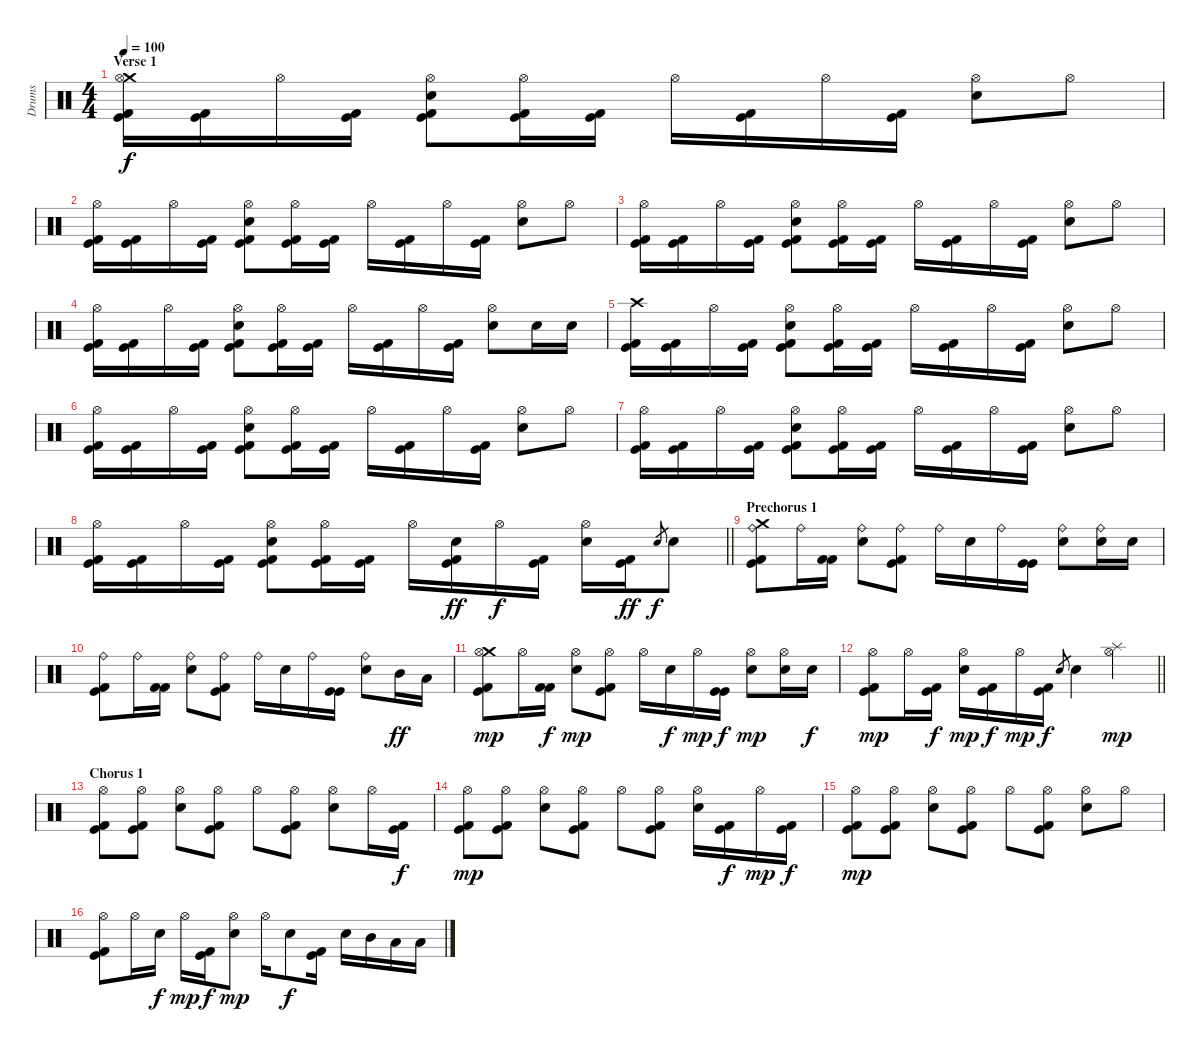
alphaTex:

\track ("Drums" "Drums") {instrument percussion}
\staff {score}
\articulation defaults
\ts (4 4)
\section ("" "Verse 1")
\tempo 100
\clef neutral
\ks c
("Crash medium (hit)" "Hi-Hat (open)" "Kick (hit)" "Kick (hit) 2").16{dy f} ("Kick (hit)" "Kick (hit) 2").16 "Hi-Hat (open)".16 ("Kick (hit)" "Kick (hit) 2").16 ("Hi-Hat (open)" "Snare (hit) 2" "Kick (hit)" "Kick (hit) 2").8 ("Hi-Hat (open)" "Kick (hit)" "Kick (hit) 2").16 ("Kick (hit)" "Kick (hit) 2").16 "Hi-Hat (open)".16 ("Kick (hit)" "Kick (hit) 2").16 "Hi-Hat (open)".16 ("Kick (hit)" "Kick (hit) 2").16 ("Hi-Hat (open)" "Snare (hit) 2").8 "Hi-Hat (open)".8 |
("Hi-Hat (open)" "Kick (hit)" "Kick (hit) 2").16 ("Kick (hit)" "Kick (hit) 2").16 "Hi-Hat (open)".16 ("Kick (hit)" "Kick (hit) 2").16 ("Hi-Hat (open)" "Snare (hit) 2" "Kick (hit)" "Kick (hit) 2").8 ("Hi-Hat (open)" "Kick (hit)" "Kick (hit) 2").16 ("Kick (hit)" "Kick (hit) 2").16 "Hi-Hat (open)".16 ("Kick (hit)" "Kick (hit) 2").16 "Hi-Hat (open)".16 ("Kick (hit)" "Kick (hit) 2").16 ("Hi-Hat (open)" "Snare (hit) 2").8 "Hi-Hat (open)".8 |
("Hi-Hat (open)" "Kick (hit)" "Kick (hit) 2").16 ("Kick (hit)" "Kick (hit) 2").16 "Hi-Hat (open)".16 ("Kick (hit)" "Kick (hit) 2").16 ("Hi-Hat (open)" "Snare (hit) 2" "Kick (hit)" "Kick (hit) 2").8 ("Hi-Hat (open)" "Kick (hit)" "Kick (hit) 2").16 ("Kick (hit)" "Kick (hit) 2").16 "Hi-Hat (open)".16 ("Kick (hit)" "Kick (hit) 2").16 "Hi-Hat (open)".16 ("Kick (hit)" "Kick (hit) 2").16 ("Hi-Hat (open)" "Snare (hit) 2").8 "Hi-Hat (open)".8 |
("Hi-Hat (open)" "Kick (hit)" "Kick (hit) 2").16 ("Kick (hit)" "Kick (hit) 2").16 "Hi-Hat (open)".16 ("Kick (hit)" "Kick (hit) 2").16 ("Hi-Hat (open)" "Snare (hit) 2" "Kick (hit)" "Kick (hit) 2").8 ("Hi-Hat (open)" "Kick (hit)" "Kick (hit) 2").16 ("Kick (hit)" "Kick (hit) 2").16 "Hi-Hat (open)".16 ("Kick (hit)" "Kick (hit) 2").16 "Hi-Hat (open)".16 ("Kick (hit)" "Kick (hit) 2").16 ("Hi-Hat (open)" "Snare (hit) 2").8 "Snare (hit) 2".16 "Snare (hit) 2".16 |
("Crash high (hit)" "Kick (hit)" "Kick (hit) 2").16 ("Kick (hit)" "Kick (hit) 2").16 "Hi-Hat (open)".16 ("Kick (hit)" "Kick (hit) 2").16 ("Hi-Hat (open)" "Snare (hit) 2" "Kick (hit)" "Kick (hit) 2").8 ("Hi-Hat (open)" "Kick (hit)" "Kick (hit) 2").16 ("Kick (hit)" "Kick (hit) 2").16 "Hi-Hat (open)".16 ("Kick (hit)" "Kick (hit) 2").16 "Hi-Hat (open)".16 ("Kick (hit)" "Kick (hit) 2").16 ("Hi-Hat (open)" "Snare (hit) 2").8 "Hi-Hat (open)".8 |
("Hi-Hat (open)" "Kick (hit)" "Kick (hit) 2").16 ("Kick (hit)" "Kick (hit) 2").16 "Hi-Hat (open)".16 ("Kick (hit)" "Kick (hit) 2").16 ("Hi-Hat (open)" "Snare (hit) 2" "Kick (hit)" "Kick (hit) 2").8 ("Hi-Hat (open)" "Kick (hit)" "Kick (hit) 2").16 ("Kick (hit)" "Kick (hit) 2").16 "Hi-Hat (open)".16 ("Kick (hit)" "Kick (hit) 2").16 "Hi-Hat (open)".16 ("Kick (hit)" "Kick (hit) 2").16 ("Hi-Hat (open)" "Snare (hit) 2").8 "Hi-Hat (open)".8 |
("Hi-Hat (open)" "Kick (hit)" "Kick (hit) 2").16 ("Kick (hit)" "Kick (hit) 2").16 "Hi-Hat (open)".16 ("Kick (hit)" "Kick (hit) 2").16 ("Hi-Hat (open)" "Snare (hit) 2" "Kick (hit)" "Kick (hit) 2").8 ("Hi-Hat (open)" "Kick (hit)" "Kick (hit) 2").16 ("Kick (hit)" "Kick (hit) 2").16 "Hi-Hat (open)".16 ("Kick (hit)" "Kick (hit) 2").16 "Hi-Hat (open)".16 ("Kick (hit)" "Kick (hit) 2").16 ("Hi-Hat (open)" "Snare (hit) 2").8 "Hi-Hat (open)".8 |
\barLineRight lightlight
("Hi-Hat (open)" "Kick (hit)" "Kick (hit) 2").16 ("Kick (hit)" "Kick (hit) 2").16 "Hi-Hat (open)".16 ("Kick (hit)" "Kick (hit) 2").16 ("Hi-Hat (open)" "Snare (hit) 2" "Kick (hit)" "Kick (hit) 2").8 ("Hi-Hat (open)" "Kick (hit)" "Kick (hit) 2").16 ("Kick (hit)" "Kick (hit) 2").16 "Hi-Hat (open)".16 ("Snare (hit) 2" "Kick (hit)" "Kick (hit) 2").16{dy ff} "Hi-Hat (open)".16{dy f} ("Kick (hit)" "Kick (hit) 2").16 ("Hi-Hat (open)" "Snare (hit) 2").16 ("Kick (hit)" "Kick (hit) 2").16{dy ff} "Snare (hit) 2".8{gr dy f} "Snare (hit) 2".8 |
\section ("" "Prechorus 1")
("Crash medium (hit)" "Ride (bell)" "Kick (hit)" "Kick (hit) 2").8 "Ride (bell)".16 ("Kick (hit) 2" "Kick (hit) 2").16 ("Ride (bell)" "Snare (hit) 2").8 ("Ride (bell)" "Kick (hit)" "Kick (hit) 2").8 "Ride (bell)".16 "Snare (hit) 2".16 "Ride (bell)".16 ("Kick (hit)" "Kick (hit)").16 ("Ride (bell)" "Snare (hit) 2").8 ("Ride (bell)" "Snare (hit) 2").16 "Snare (hit) 2".16 |
("Ride (bell)" "Kick (hit)" "Kick (hit) 2").8 "Ride (bell)".16 ("Kick (hit) 2" "Kick (hit) 2").16 ("Ride (bell)" "Snare (hit) 2").8 ("Ride (bell)" "Kick (hit)" "Kick (hit) 2").8 "Ride (bell)".16 "Snare (hit) 2".16 "Ride (bell)".16 ("Kick (hit)" "Kick (hit)").16 ("Ride (bell)" "Snare (hit) 2").8 "Mid Tom (hit)".16{dy ff} "Low Tom (hit)".16 |
("Crash medium (hit)" "Hi-Hat (open)" "Kick (hit)" "Kick (hit) 2").8{dy mp} "Hi-Hat (open)".16 ("Kick (hit) 2" "Kick (hit) 2").16{dy f} ("Hi-Hat (open)" "Snare (hit) 2").8{dy mp} ("Hi-Hat (open)" "Kick (hit)" "Kick (hit) 2").8 "Hi-Hat (open)".16 "Snare (hit) 2".16{dy f} "Hi-Hat (open)".16{dy mp} ("Kick (hit)" "Kick (hit)").16{dy f} ("Hi-Hat (open)" "Snare (hit) 2").8{dy mp} ("Hi-Hat (open)" "Snare (hit) 2").16 "Snare (hit) 2".16{dy f} |
\barLineRight lightlight
("Hi-Hat (open)" "Kick (hit)" "Kick (hit) 2").8{dy mp} "Hi-Hat (open)".16 ("Kick (hit)" "Kick (hit) 2").16{dy f} ("Hi-Hat (open)" "Snare (hit) 2").16{dy mp} ("Kick (hit)" "Kick (hit) 2").16{dy f} "Hi-Hat (open)".16{dy mp} ("Kick (hit)" "Kick (hit) 2").16{dy f} "Snare (hit) 2".8{gr} "Snare (hit) 2".4 ("Splash (hit)" "Hi-Hat (open)").4{dy mp} |
\section ("" "Chorus 1")
("Hi-Hat (open)" "Kick (hit)" "Kick (hit) 2").8 ("Hi-Hat (open)" "Kick (hit)" "Kick (hit) 2").8 ("Hi-Hat (open)" "Snare (hit) 2").8 ("Hi-Hat (open)" "Kick (hit)" "Kick (hit) 2").8 "Hi-Hat (open)".8 ("Hi-Hat (open)" "Kick (hit)" "Kick (hit) 2").8 ("Hi-Hat (open)" "Snare (hit) 2").8 "Hi-Hat (open)".16 ("Kick (hit)" "Kick (hit) 2").16{dy f} |
("Hi-Hat (open)" "Kick (hit)" "Kick (hit) 2").8{dy mp} ("Hi-Hat (open)" "Kick (hit)" "Kick (hit) 2").8 ("Hi-Hat (open)" "Snare (hit) 2").8 ("Hi-Hat (open)" "Kick (hit)" "Kick (hit) 2").8 "Hi-Hat (open)".8 ("Hi-Hat (open)" "Kick (hit)" "Kick (hit) 2").8 ("Hi-Hat (open)" "Snare (hit) 2").16 ("Kick (hit)" "Kick (hit) 2").16{dy f} "Hi-Hat (open)".16{dy mp} ("Kick (hit)" "Kick (hit) 2").16{dy f} |
("Hi-Hat (open)" "Kick (hit)" "Kick (hit) 2").8{dy mp} ("Hi-Hat (open)" "Kick (hit)" "Kick (hit) 2").8 ("Hi-Hat (open)" "Snare (hit) 2").8 ("Hi-Hat (open)" "Kick (hit)" "Kick (hit) 2").8 "Hi-Hat (open)".8 ("Hi-Hat (open)" "Kick (hit)" "Kick (hit) 2").8 ("Hi-Hat (open)" "Snare (hit) 2").8 "Hi-Hat (open)".8 |
("Hi-Hat (open)" "Kick (hit)" "Kick (hit) 2").8 "Hi-Hat (open)".16 "Snare (hit) 2".16{dy f} "Hi-Hat (open)".16{dy mp} ("Kick (hit)" "Kick (hit) 2").16{dy f} ("Hi-Hat (open)" "Snare (hit) 2").8{dy mp} "Hi-Hat (open)".16 "Snare (hit) 2".8{dy f} ("Kick (hit)" "Kick (hit) 2").16 "Snare (hit) 2".16 "Mid Tom (hit)".16 "Low Tom (hit)".16 "Low Tom (hit)".16
